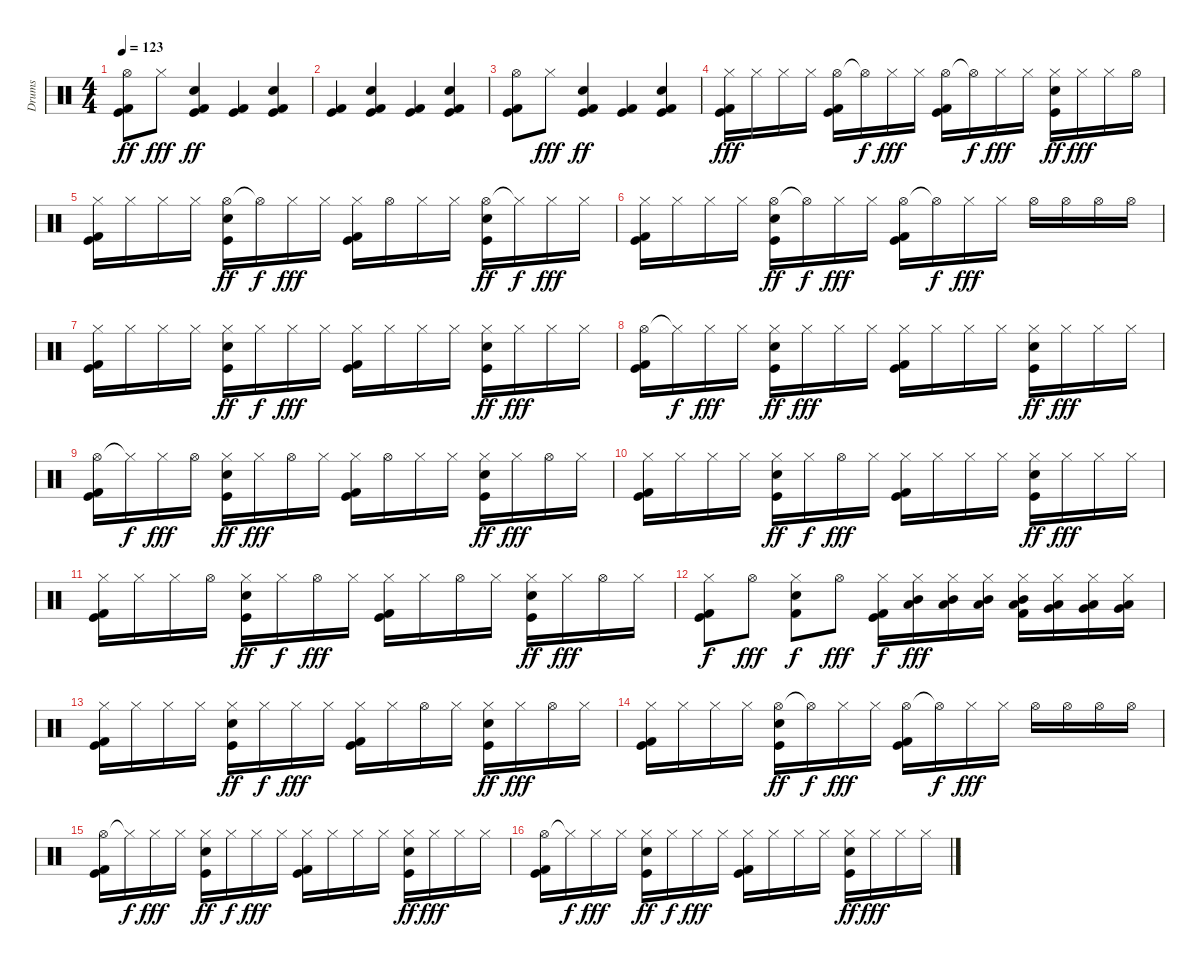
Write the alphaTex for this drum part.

\track ("Drums" "Drums") {instrument percussion}
\staff {score}
\articulation defaults
\ts (4 4)
\tempo 123
\clef neutral
\ks c
("Hi-Hat (open)" "Kick (hit)" "Kick (hit) 2").8{dy ff} "Hi-Hat (closed)".8{dy fff} ("Snare (hit) 2" "Kick (hit)" "Kick (hit) 2").4{dy ff} ("Kick (hit)" "Kick (hit) 2").4 ("Snare (hit) 2" "Kick (hit)" "Kick (hit) 2").4 |
("Kick (hit)" "Kick (hit) 2").4 ("Snare (hit) 2" "Kick (hit)" "Kick (hit) 2").4 ("Kick (hit)" "Kick (hit) 2").4 ("Snare (hit) 2" "Kick (hit)" "Kick (hit) 2").4 |
("Hi-Hat (open)" "Kick (hit)" "Kick (hit) 2").8 "Hi-Hat (closed)".8{dy fff} ("Snare (hit) 2" "Kick (hit)" "Kick (hit) 2").4{dy ff} ("Kick (hit)" "Kick (hit) 2").4 ("Snare (hit) 2" "Kick (hit)" "Kick (hit) 2").4 |
("Hi-Hat (closed)" "Kick (hit) 2" "Kick (hit)").16{dy fff} "Hi-Hat (closed)".16 "Hi-Hat (closed)".16 "Hi-Hat (closed)".16 ("Hi-Hat (open)" "Kick (hit) 2" "Kick (hit)").16 "Hi-Hat (open)"{t}.16{dy f} "Hi-Hat (closed)".16{dy fff} "Hi-Hat (closed)".16 ("Hi-Hat (open)" "Kick (hit) 2" "Kick (hit)").16 "Hi-Hat (open)"{t}.16{dy f} "Hi-Hat (closed)".16{dy fff} "Hi-Hat (closed)".16 ("Hi-Hat (closed)" "Snare (hit) 2" "Kick (hit)").16{dy ff} "Hi-Hat (closed)".16{dy fff} "Hi-Hat (closed)".16 "Hi-Hat (open)".16 |
("Hi-Hat (closed)" "Kick (hit) 2" "Kick (hit)").16 "Hi-Hat (closed)".16 "Hi-Hat (closed)".16 "Hi-Hat (closed)".16 ("Hi-Hat (open)" "Snare (hit) 2" "Kick (hit)").16{dy ff} "Hi-Hat (open)"{t}.16{dy f} "Hi-Hat (closed)".16{dy fff} "Hi-Hat (closed)".16 ("Hi-Hat (closed)" "Kick (hit) 2" "Kick (hit)").16 "Hi-Hat (open)".16 "Hi-Hat (closed)".16 "Hi-Hat (closed)".16 ("Hi-Hat (open)" "Snare (hit) 2" "Kick (hit)").16{dy ff} "Hi-Hat (closed)"{t}.16{dy f} "Hi-Hat (closed)".16{dy fff} "Hi-Hat (closed)".16 |
("Hi-Hat (closed)" "Kick (hit) 2" "Kick (hit)").16 "Hi-Hat (closed)".16 "Hi-Hat (closed)".16 "Hi-Hat (closed)".16 ("Hi-Hat (open)" "Snare (hit) 2" "Kick (hit)").16{dy ff} "Hi-Hat (open)"{t}.16{dy f} "Hi-Hat (closed)".16{dy fff} "Hi-Hat (closed)".16 ("Hi-Hat (open)" "Kick (hit) 2" "Kick (hit)").16 "Hi-Hat (open)"{t}.16{dy f} "Hi-Hat (closed)".16{dy fff} "Hi-Hat (closed)".16 "Hi-Hat (open)".16 "Hi-Hat (open)".16 "Hi-Hat (open)".16 "Hi-Hat (open)".16 |
("Hi-Hat (closed)" "Kick (hit) 2" "Kick (hit)").16 "Hi-Hat (closed)".16 "Hi-Hat (closed)".16 "Hi-Hat (closed)".16 ("Hi-Hat (closed)" "Snare (hit) 2" "Kick (hit)").16{dy ff} "Hi-Hat (closed)".16{dy f} "Hi-Hat (closed)".16{dy fff} "Hi-Hat (closed)".16 ("Hi-Hat (closed)" "Kick (hit) 2" "Kick (hit)").16 "Hi-Hat (closed)".16 "Hi-Hat (closed)".16 "Hi-Hat (closed)".16 ("Hi-Hat (closed)" "Snare (hit) 2" "Kick (hit)").16{dy ff} "Hi-Hat (closed)".16{dy fff} "Hi-Hat (closed)".16 "Hi-Hat (closed)".16 |
("Hi-Hat (open)" "Kick (hit) 2" "Kick (hit)").16 "Hi-Hat (closed)"{t}.16{dy f} "Hi-Hat (closed)".16{dy fff} "Hi-Hat (closed)".16 ("Hi-Hat (closed)" "Snare (hit) 2" "Kick (hit)").16{dy ff} "Hi-Hat (closed)".16{dy fff} "Hi-Hat (closed)".16 "Hi-Hat (closed)".16 ("Hi-Hat (closed)" "Kick (hit) 2" "Kick (hit)").16 "Hi-Hat (closed)".16 "Hi-Hat (closed)".16 "Hi-Hat (closed)".16 ("Hi-Hat (closed)" "Snare (hit) 2" "Kick (hit)").16{dy ff} "Hi-Hat (closed)".16{dy fff} "Hi-Hat (closed)".16 "Hi-Hat (closed)".16 |
("Hi-Hat (open)" "Kick (hit) 2" "Kick (hit)").16 "Hi-Hat (closed)"{t}.16{dy f} "Hi-Hat (closed)".16{dy fff} "Hi-Hat (open)".16 ("Hi-Hat (closed)" "Snare (hit) 2" "Kick (hit)").16{dy ff} "Hi-Hat (closed)".16{dy fff} "Hi-Hat (open)".16 "Hi-Hat (closed)".16 ("Hi-Hat (closed)" "Kick (hit) 2" "Kick (hit)").16 "Hi-Hat (open)".16 "Hi-Hat (closed)".16 "Hi-Hat (closed)".16 ("Hi-Hat (closed)" "Snare (hit) 2" "Kick (hit)").16{dy ff} "Hi-Hat (closed)".16{dy fff} "Hi-Hat (open)".16 "Hi-Hat (closed)".16 |
("Hi-Hat (closed)" "Kick (hit) 2" "Kick (hit)").16 "Hi-Hat (closed)".16 "Hi-Hat (closed)".16 "Hi-Hat (closed)".16 ("Hi-Hat (closed)" "Snare (hit) 2" "Kick (hit)").16{dy ff} "Hi-Hat (closed)".16{dy f} "Hi-Hat (open)".16{dy fff} "Hi-Hat (closed)".16 ("Hi-Hat (closed)" "Kick (hit) 2" "Kick (hit)").16 "Hi-Hat (closed)".16 "Hi-Hat (closed)".16 "Hi-Hat (closed)".16 ("Hi-Hat (closed)" "Snare (hit) 2" "Kick (hit)").16{dy ff} "Hi-Hat (closed)".16{dy fff} "Hi-Hat (closed)".16 "Hi-Hat (closed)".16 |
("Hi-Hat (closed)" "Kick (hit) 2" "Kick (hit)").16 "Hi-Hat (closed)".16 "Hi-Hat (closed)".16 "Hi-Hat (open)".16 ("Hi-Hat (closed)" "Snare (hit) 2" "Kick (hit)").16{dy ff} "Hi-Hat (closed)".16{dy f} "Hi-Hat (open)".16{dy fff} "Hi-Hat (closed)".16 ("Hi-Hat (closed)" "Kick (hit) 2" "Kick (hit)").16 "Hi-Hat (closed)".16 "Hi-Hat (open)".16 "Hi-Hat (closed)".16 ("Hi-Hat (closed)" "Snare (hit) 2" "Kick (hit)").16{dy ff} "Hi-Hat (closed)".16{dy fff} "Hi-Hat (open)".16 "Hi-Hat (closed)".16 |
("Hi-Hat (closed)" "Kick (hit)" "Kick (hit) 2").8{dy f} "Hi-Hat (open)".8{dy fff} ("Hi-Hat (closed)" "Snare (hit) 2" "Kick (hit) 2").8{dy f} "Hi-Hat (open)".8{dy fff} ("Hi-Hat (closed)" "Kick (hit)" "Kick (hit) 2").16{dy f} ("Hi-Hat (closed)" "Mid Tom (hit)" "Low Tom (hit)").16{dy fff} ("Hi-Hat (closed)" "Mid Tom (hit)" "Low Tom (hit)").16 ("Hi-Hat (closed)" "Mid Tom (hit)" "Low Tom (hit)").16 ("Hi-Hat (closed)" "Mid Tom (hit)" "Low Tom (hit)" "Kick (hit) 2").16 ("Hi-Hat (closed)" "Very Low Tom (hit)" "Low Tom (hit)").16 ("Hi-Hat (closed)" "Very Low Tom (hit)" "Low Tom (hit)").16 ("Hi-Hat (closed)" "Very Low Tom (hit)" "Low Tom (hit)").16 |
("Hi-Hat (closed)" "Kick (hit) 2" "Kick (hit)").16 "Hi-Hat (closed)".16 "Hi-Hat (closed)".16 "Hi-Hat (closed)".16 ("Hi-Hat (closed)" "Snare (hit) 2" "Kick (hit)").16{dy ff} "Hi-Hat (closed)".16{dy f} "Hi-Hat (closed)".16{dy fff} "Hi-Hat (closed)".16 ("Hi-Hat (closed)" "Kick (hit) 2" "Kick (hit)").16 "Hi-Hat (closed)".16 "Hi-Hat (open)".16 "Hi-Hat (closed)".16 ("Hi-Hat (closed)" "Snare (hit) 2" "Kick (hit)").16{dy ff} "Hi-Hat (closed)".16{dy fff} "Hi-Hat (open)".16 "Hi-Hat (closed)".16 |
("Hi-Hat (closed)" "Kick (hit) 2" "Kick (hit)").16 "Hi-Hat (closed)".16 "Hi-Hat (closed)".16 "Hi-Hat (closed)".16 ("Hi-Hat (open)" "Snare (hit) 2" "Kick (hit)").16{dy ff} "Hi-Hat (open)"{t}.16{dy f} "Hi-Hat (closed)".16{dy fff} "Hi-Hat (closed)".16 ("Hi-Hat (open)" "Kick (hit) 2" "Kick (hit)").16 "Hi-Hat (open)"{t}.16{dy f} "Hi-Hat (closed)".16{dy fff} "Hi-Hat (closed)".16 "Hi-Hat (open)".16 "Hi-Hat (open)".16 "Hi-Hat (open)".16 "Hi-Hat (open)".16 |
("Hi-Hat (open)" "Kick (hit) 2" "Kick (hit)").16 "Hi-Hat (closed)"{t}.16{dy f} "Hi-Hat (closed)".16{dy fff} "Hi-Hat (closed)".16 ("Hi-Hat (closed)" "Snare (hit) 2" "Kick (hit)").16{dy ff} "Hi-Hat (closed)".16{dy f} "Hi-Hat (closed)".16{dy fff} "Hi-Hat (closed)".16 ("Hi-Hat (closed)" "Kick (hit) 2" "Kick (hit)").16 "Hi-Hat (closed)".16 "Hi-Hat (closed)".16 "Hi-Hat (closed)".16 ("Hi-Hat (closed)" "Snare (hit) 2" "Kick (hit)").16{dy ff} "Hi-Hat (closed)".16{dy fff} "Hi-Hat (closed)".16 "Hi-Hat (closed)".16 |
("Hi-Hat (open)" "Kick (hit) 2" "Kick (hit)").16 "Hi-Hat (closed)"{t}.16{dy f} "Hi-Hat (closed)".16{dy fff} "Hi-Hat (closed)".16 ("Hi-Hat (closed)" "Snare (hit) 2" "Kick (hit)").16{dy ff} "Hi-Hat (closed)".16{dy f} "Hi-Hat (closed)".16{dy fff} "Hi-Hat (closed)".16 ("Hi-Hat (closed)" "Kick (hit) 2" "Kick (hit)").16 "Hi-Hat (closed)".16 "Hi-Hat (closed)".16 "Hi-Hat (closed)".16 ("Hi-Hat (closed)" "Snare (hit) 2" "Kick (hit)").16{dy ff} "Hi-Hat (closed)".16{dy fff} "Hi-Hat (closed)".16 "Hi-Hat (closed)".16
